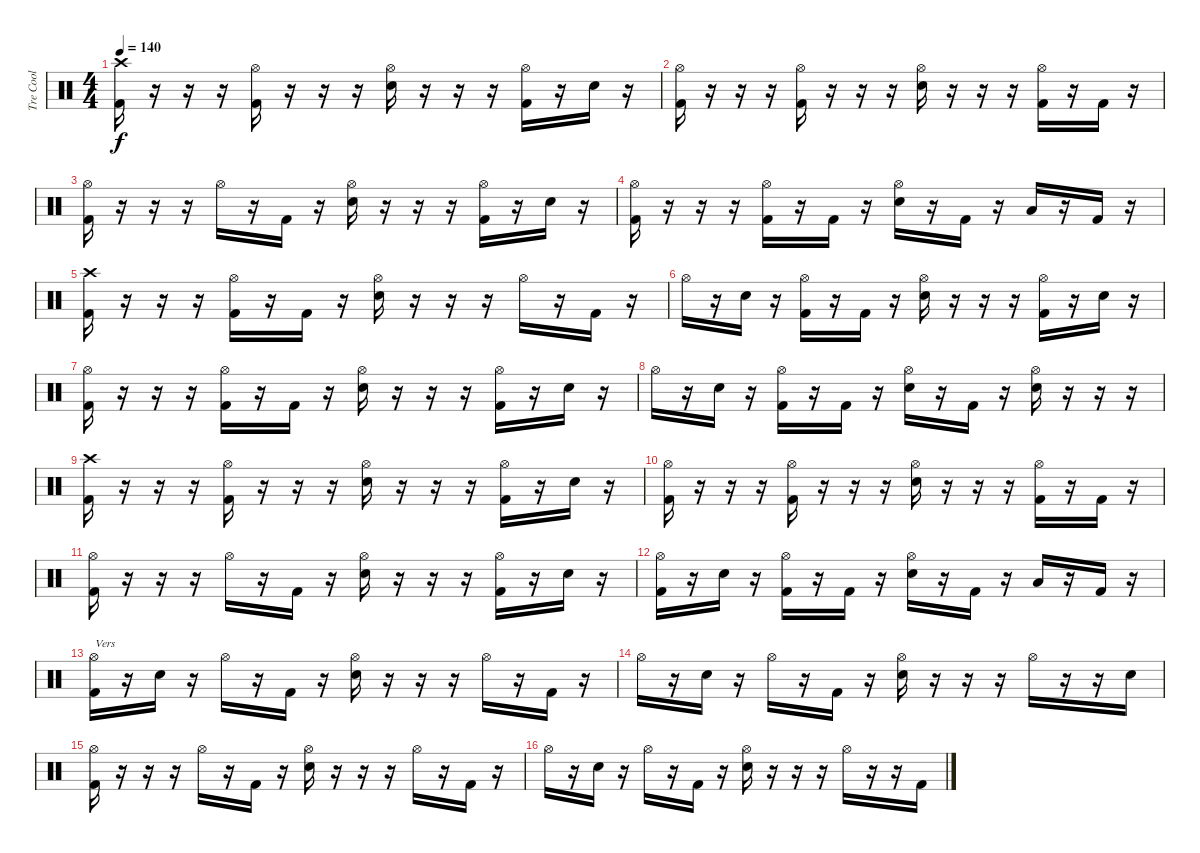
\track ("Tre Cool" "Tre Cool") {instrument percussion}
\staff {score}
\articulation defaults
\ts (4 4)
\tempo 140
\clef neutral
\ks c
("Crash high (hit)" "Kick (hit) 2").16{dy f} r.16 r.16 r.16 ("Hi-Hat (open)" "Kick (hit) 2").16 r.16 r.16 r.16 ("Hi-Hat (open)" "Snare (hit) 2").16 r.16 r.16 r.16 ("Hi-Hat (open)" "Kick (hit) 2").16 r.16 "Snare (hit) 2".16 r.16 |
("Hi-Hat (open)" "Kick (hit) 2").16 r.16 r.16 r.16 ("Hi-Hat (open)" "Kick (hit) 2").16 r.16 r.16 r.16 ("Hi-Hat (open)" "Snare (hit) 2").16 r.16 r.16 r.16 ("Hi-Hat (open)" "Kick (hit) 2").16 r.16 "Kick (hit) 2".16 r.16 |
("Hi-Hat (open)" "Kick (hit) 2").16 r.16 r.16 r.16 "Hi-Hat (open)".16 r.16 "Kick (hit) 2".16 r.16 ("Hi-Hat (open)" "Snare (hit) 2").16 r.16 r.16 r.16 ("Hi-Hat (open)" "Kick (hit) 2").16 r.16 "Snare (hit) 2".16 r.16 |
("Hi-Hat (open)" "Kick (hit) 2").16 r.16 r.16 r.16 ("Hi-Hat (open)" "Kick (hit) 2").16 r.16 "Kick (hit) 2".16 r.16 ("Hi-Hat (open)" "Snare (hit) 2").16 r.16 "Kick (hit) 2".16 r.16 "Low Floor Tom (hit)".16 r.16 "Kick (hit) 2".16 r.16 |
("Crash high (hit)" "Kick (hit) 2").16 r.16 r.16 r.16 ("Hi-Hat (open)" "Kick (hit) 2").16 r.16 "Kick (hit) 2".16 r.16 ("Hi-Hat (open)" "Snare (hit) 2").16 r.16 r.16 r.16 "Hi-Hat (open)".16 r.16 "Kick (hit) 2".16 r.16 |
"Hi-Hat (open)".16 r.16 "Snare (hit) 2".16 r.16 ("Hi-Hat (open)" "Kick (hit) 2").16 r.16 "Kick (hit) 2".16 r.16 ("Hi-Hat (open)" "Snare (hit) 2").16 r.16 r.16 r.16 ("Hi-Hat (open)" "Kick (hit) 2").16 r.16 "Snare (hit) 2".16 r.16 |
("Hi-Hat (open)" "Kick (hit) 2").16 r.16 r.16 r.16 ("Hi-Hat (open)" "Kick (hit) 2").16 r.16 "Kick (hit) 2".16 r.16 ("Hi-Hat (open)" "Snare (hit) 2").16 r.16 r.16 r.16 ("Hi-Hat (open)" "Kick (hit) 2").16 r.16 "Snare (hit) 2".16 r.16 |
"Hi-Hat (open)".16 r.16 "Snare (hit) 2".16 r.16 ("Hi-Hat (open)" "Kick (hit) 2").16 r.16 "Kick (hit) 2".16 r.16 ("Hi-Hat (open)" "Snare (hit) 2").16 r.16 "Kick (hit) 2".16 r.16 ("Hi-Hat (open)" "Snare (hit) 2").16 r.16 r.16 r.16 |
("Crash high (hit)" "Kick (hit) 2").16 r.16 r.16 r.16 ("Hi-Hat (open)" "Kick (hit) 2").16 r.16 r.16 r.16 ("Hi-Hat (open)" "Snare (hit) 2").16 r.16 r.16 r.16 ("Hi-Hat (open)" "Kick (hit) 2").16 r.16 "Snare (hit) 2".16 r.16 |
("Hi-Hat (open)" "Kick (hit) 2").16 r.16 r.16 r.16 ("Hi-Hat (open)" "Kick (hit) 2").16 r.16 r.16 r.16 ("Hi-Hat (open)" "Snare (hit) 2").16 r.16 r.16 r.16 ("Hi-Hat (open)" "Kick (hit) 2").16 r.16 "Kick (hit) 2".16 r.16 |
("Hi-Hat (open)" "Kick (hit) 2").16 r.16 r.16 r.16 "Hi-Hat (open)".16 r.16 "Kick (hit) 2".16 r.16 ("Hi-Hat (open)" "Snare (hit) 2").16 r.16 r.16 r.16 ("Hi-Hat (open)" "Kick (hit) 2").16 r.16 "Snare (hit) 2".16 r.16 |
("Hi-Hat (open)" "Kick (hit) 2").16 r.16 "Snare (hit) 2".16 r.16 ("Hi-Hat (open)" "Kick (hit) 2").16 r.16 "Kick (hit) 2".16 r.16 ("Hi-Hat (open)" "Snare (hit) 2").16 r.16 "Kick (hit) 2".16 r.16 "Low Floor Tom (hit)".16 r.16 "Kick (hit) 2".16 r.16 |
("Hi-Hat (open)" "Kick (hit) 2").16{txt "Vers"} r.16 "Snare (hit) 2".16 r.16 "Hi-Hat (open)".16 r.16 "Kick (hit) 2".16 r.16 ("Hi-Hat (open)" "Snare (hit) 2").16 r.16 r.16 r.16 "Hi-Hat (open)".16 r.16 "Kick (hit) 2".16 r.16 |
"Hi-Hat (open)".16 r.16 "Snare (hit) 2".16 r.16 "Hi-Hat (open)".16 r.16 "Kick (hit) 2".16 r.16 ("Hi-Hat (open)" "Snare (hit) 2").16 r.16 r.16 r.16 "Hi-Hat (open)".16 r.16 r.16 "Snare (hit) 2".16 |
("Hi-Hat (open)" "Kick (hit) 2").16 r.16 r.16 r.16 "Hi-Hat (open)".16 r.16 "Kick (hit) 2".16 r.16 ("Hi-Hat (open)" "Snare (hit) 2").16 r.16 r.16 r.16 "Hi-Hat (open)".16 r.16 "Kick (hit) 2".16 r.16 |
"Hi-Hat (open)".16 r.16 "Snare (hit) 2".16 r.16 "Hi-Hat (open)".16 r.16 "Kick (hit) 2".16 r.16 ("Hi-Hat (open)" "Snare (hit) 2").16 r.16 r.16 r.16 "Hi-Hat (open)".16 r.16 r.16 "Kick (hit) 2".16
